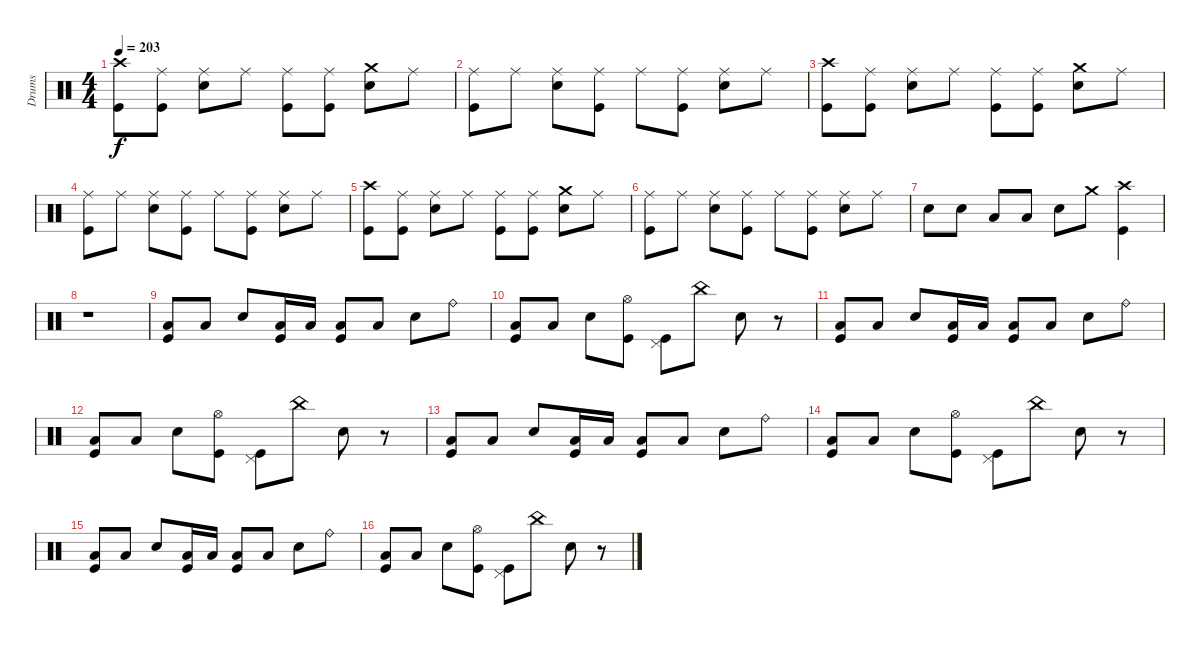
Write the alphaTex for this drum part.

\track ("Drums" "Drums") {instrument percussion}
\staff {score}
\articulation defaults
\ts (4 4)
\tempo 203
\clef neutral
\ks c
("Crash high (hit)" "Kick (hit)").8{dy f} ("Ride (middle)" "Kick (hit)").8 ("Ride (middle)" "Snare (hit) 2").8 "Ride (middle)".8 ("Ride (middle)" "Kick (hit)").8 ("Ride (middle)" "Kick (hit)").8 ("Crash medium (hit)" "Snare (hit) 2").8 "Ride (middle)".8 |
("Ride (middle)" "Kick (hit)").8 "Ride (middle)".8 ("Ride (middle)" "Snare (hit) 2").8 ("Ride (middle)" "Kick (hit)").8 "Ride (middle)".8 ("Ride (middle)" "Kick (hit)").8 ("Ride (middle)" "Snare (hit) 2").8 "Ride (middle)".8 |
("Crash high (hit)" "Kick (hit)").8 ("Ride (middle)" "Kick (hit)").8 ("Ride (middle)" "Snare (hit) 2").8 "Ride (middle)".8 ("Ride (middle)" "Kick (hit)").8 ("Ride (middle)" "Kick (hit)").8 ("Crash medium (hit)" "Snare (hit) 2").8 "Ride (middle)".8 |
("Ride (middle)" "Kick (hit)").8 "Ride (middle)".8 ("Ride (middle)" "Snare (hit) 2").8 ("Ride (middle)" "Kick (hit)").8 "Ride (middle)".8 ("Ride (middle)" "Kick (hit)").8 ("Ride (middle)" "Snare (hit) 2").8 "Ride (middle)".8 |
("Crash high (hit)" "Kick (hit)").8 ("Ride (middle)" "Kick (hit)").8 ("Ride (middle)" "Snare (hit) 2").8 "Ride (middle)".8 ("Ride (middle)" "Kick (hit)").8 ("Ride (middle)" "Kick (hit)").8 ("Crash medium (hit)" "Snare (hit) 2").8 "Ride (middle)".8 |
("Ride (middle)" "Kick (hit)").8 "Ride (middle)".8 ("Ride (middle)" "Snare (hit) 2").8 ("Ride (middle)" "Kick (hit)").8 "Ride (middle)".8 ("Ride (middle)" "Kick (hit)").8 ("Ride (middle)" "Snare (hit) 2").8 "Ride (middle)".8 |
"Snare (hit) 2".8 "Snare (hit) 2".8 "Low Tom (hit)".8 "Low Tom (hit)".8 "Snare (hit) 2".8 "Crash medium (hit)".8 ("Crash high (hit)" "Kick (hit)").4 |
r.1 |
("Low Floor Tom (hit)" "Kick (hit)").8 "Low Floor Tom (hit)".8 "Snare (hit) 2".8 ("Low Tom (hit)" "Kick (hit)").16 "Low Tom (hit)".16 ("Low Floor Tom (hit)" "Kick (hit)").8 "Low Floor Tom (hit)".8 "Snare (hit) 2".8 "Ride (bell)".8 |
("Low Floor Tom (hit)" "Kick (hit)").8 "Low Floor Tom (hit)".8 "Snare (hit) 2".8 ("Hi-Hat (open)" "Kick (hit)").8 ("Pedal Hi-Hat (hit)" "Kick (hit)").8 "China (hit)".8 "Snare (hit) 2".8 r.8 |
("Low Floor Tom (hit)" "Kick (hit)").8 "Low Floor Tom (hit)".8 "Snare (hit) 2".8 ("Low Tom (hit)" "Kick (hit)").16 "Low Tom (hit)".16 ("Low Floor Tom (hit)" "Kick (hit)").8 "Low Floor Tom (hit)".8 "Snare (hit) 2".8 "Ride (bell)".8 |
("Low Floor Tom (hit)" "Kick (hit)").8 "Low Floor Tom (hit)".8 "Snare (hit) 2".8 ("Hi-Hat (open)" "Kick (hit)").8 ("Pedal Hi-Hat (hit)" "Kick (hit)").8 "China (hit)".8 "Snare (hit) 2".8 r.8 |
("Low Floor Tom (hit)" "Kick (hit)").8 "Low Floor Tom (hit)".8 "Snare (hit) 2".8 ("Low Tom (hit)" "Kick (hit)").16 "Low Tom (hit)".16 ("Low Floor Tom (hit)" "Kick (hit)").8 "Low Floor Tom (hit)".8 "Snare (hit) 2".8 "Ride (bell)".8 |
("Low Floor Tom (hit)" "Kick (hit)").8 "Low Floor Tom (hit)".8 "Snare (hit) 2".8 ("Hi-Hat (open)" "Kick (hit)").8 ("Pedal Hi-Hat (hit)" "Kick (hit)").8 "China (hit)".8 "Snare (hit) 2".8 r.8 |
("Low Floor Tom (hit)" "Kick (hit)").8 "Low Floor Tom (hit)".8 "Snare (hit) 2".8 ("Low Tom (hit)" "Kick (hit)").16 "Low Tom (hit)".16 ("Low Floor Tom (hit)" "Kick (hit)").8 "Low Floor Tom (hit)".8 "Snare (hit) 2".8 "Ride (bell)".8 |
("Low Floor Tom (hit)" "Kick (hit)").8 "Low Floor Tom (hit)".8 "Snare (hit) 2".8 ("Hi-Hat (open)" "Kick (hit)").8 ("Pedal Hi-Hat (hit)" "Kick (hit)").8 "China (hit)".8 "Snare (hit) 2".8 r.8
